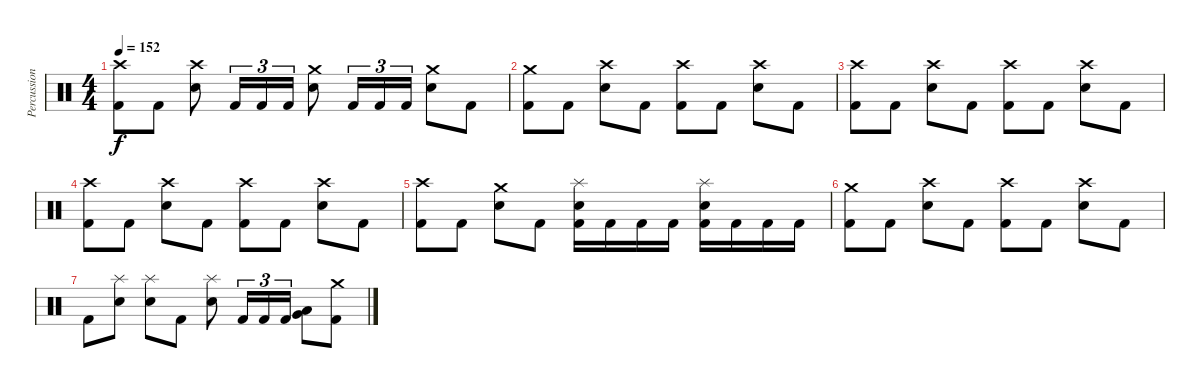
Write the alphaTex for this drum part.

\track ("Percussion" "Percussion") {instrument percussion}
\staff {score}
\articulation defaults
\ts (4 4)
\tempo 152
\clef neutral
\ks c
("Crash high (hit)" "Kick (hit) 2").8{dy f} "Kick (hit) 2".8 ("Crash high (hit)" "Snare (hit) 2").8 "Kick (hit) 2".16{tu (3 2)} "Kick (hit) 2".16{tu (3 2)} "Kick (hit) 2".16{tu (3 2)} ("Crash medium (hit)" "Snare (hit) 2").8 "Kick (hit) 2".16{tu (3 2)} "Kick (hit) 2".16{tu (3 2)} "Kick (hit) 2".16{tu (3 2)} ("Crash medium (hit)" "Snare (hit) 2").8 "Kick (hit) 2".8 |
("Crash medium (hit)" "Kick (hit) 2").8 "Kick (hit) 2".8 ("Crash high (hit)" "Snare (hit) 2").8 "Kick (hit) 2".8 ("Crash high (hit)" "Kick (hit) 2").8 "Kick (hit) 2".8 ("Crash high (hit)" "Snare (hit) 2").8 "Kick (hit) 2".8 |
("Crash high (hit)" "Kick (hit) 2").8 "Kick (hit) 2".8 ("Crash high (hit)" "Snare (hit) 2").8 "Kick (hit) 2".8 ("Crash high (hit)" "Kick (hit) 2").8 "Kick (hit) 2".8 ("Crash high (hit)" "Snare (hit) 2").8 "Kick (hit) 2".8 |
("Crash high (hit)" "Kick (hit) 2").8 "Kick (hit) 2".8 ("Crash high (hit)" "Snare (hit) 2").8 "Kick (hit) 2".8 ("Crash high (hit)" "Kick (hit) 2").8 "Kick (hit) 2".8 ("Crash high (hit)" "Snare (hit) 2").8 "Kick (hit) 2".8 |
("Crash high (hit)" "Kick (hit) 2").8 "Kick (hit) 2".8 ("Crash medium (hit)" "Snare (hit) 2").8 "Kick (hit) 2".8 ("Splash (hit)" "Snare (hit) 2" "Kick (hit) 2").16 "Kick (hit) 2".16 "Kick (hit) 2".16 "Kick (hit) 2".16 ("Splash (hit)" "Snare (hit) 2" "Kick (hit) 2").16 "Kick (hit) 2".16 "Kick (hit) 2".16 "Kick (hit) 2".16 |
("Crash medium (hit)" "Kick (hit) 2").8 "Kick (hit) 2".8 ("Crash high (hit)" "Snare (hit) 2").8 "Kick (hit) 2".8 ("Crash high (hit)" "Kick (hit) 2").8 "Kick (hit) 2".8 ("Crash high (hit)" "Snare (hit) 2").8 "Kick (hit) 2".8 |
"Kick (hit) 2".8 ("Splash (hit)" "Snare (hit) 2").8 ("Splash (hit)" "Snare (hit) 2").8 "Kick (hit) 2".8 ("Splash (hit)" "Snare (hit) 2").8 "Kick (hit) 2".16{tu (3 2)} "Kick (hit) 2".16{tu (3 2)} "Kick (hit) 2".16{tu (3 2)} ("Low Tom (hit)" "Very Low Tom (hit)").8 ("Crash medium (hit)" "Kick (hit) 2").8
